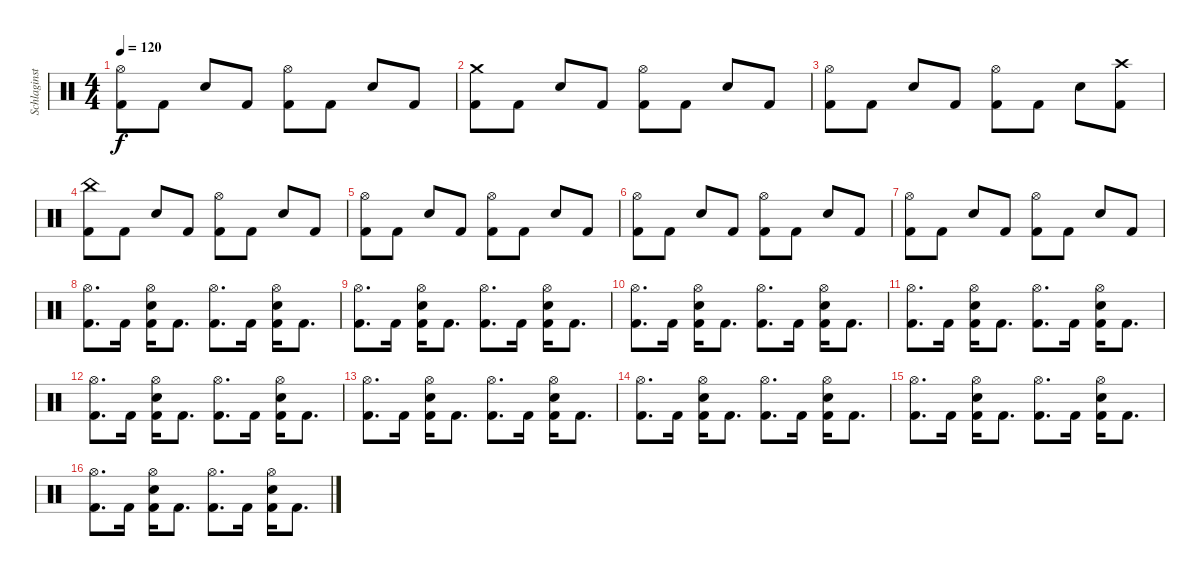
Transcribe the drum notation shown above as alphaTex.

\track ("Schlaginstrumente - Auswahl" "Schlaginst") {instrument percussion}
\staff {score}
\articulation defaults
\ts (4 4)
\tempo 120
\clef neutral
\ks c
("Hi-Hat (open)" "Kick (hit) 2").8{dy f} "Kick (hit) 2".8 "Electric Snare (hit)".8 "Kick (hit) 2".8 ("Hi-Hat (open)" "Kick (hit) 2").8 "Kick (hit) 2".8 "Electric Snare (hit)".8 "Kick (hit) 2".8 |
("Crash medium (hit)" "Kick (hit) 2").8 "Kick (hit) 2".8 "Electric Snare (hit)".8 "Kick (hit) 2".8 ("Hi-Hat (open)" "Kick (hit) 2").8 "Kick (hit) 2".8 "Electric Snare (hit)".8 "Kick (hit) 2".8 |
("Hi-Hat (open)" "Kick (hit) 2").8 "Kick (hit) 2".8 "Electric Snare (hit)".8 "Kick (hit) 2".8 ("Hi-Hat (open)" "Kick (hit) 2").8 "Kick (hit) 2".8 "Electric Snare (hit)".8 ("Crash high (hit)" "Kick (hit) 2").8 |
("China (hit)" "Kick (hit) 2").8 "Kick (hit) 2".8 "Electric Snare (hit)".8 "Kick (hit) 2".8 ("Hi-Hat (open)" "Kick (hit) 2").8 "Kick (hit) 2".8 "Electric Snare (hit)".8 "Kick (hit) 2".8 |
("Hi-Hat (open)" "Kick (hit) 2").8 "Kick (hit) 2".8 "Electric Snare (hit)".8 "Kick (hit) 2".8 ("Hi-Hat (open)" "Kick (hit) 2").8 "Kick (hit) 2".8 "Electric Snare (hit)".8 "Kick (hit) 2".8 |
("Hi-Hat (open)" "Kick (hit) 2").8 "Kick (hit) 2".8 "Electric Snare (hit)".8 "Kick (hit) 2".8 ("Hi-Hat (open)" "Kick (hit) 2").8 "Kick (hit) 2".8 "Electric Snare (hit)".8 "Kick (hit) 2".8 |
("Hi-Hat (open)" "Kick (hit) 2").8 "Kick (hit) 2".8 "Electric Snare (hit)".8 "Kick (hit) 2".8 ("Hi-Hat (open)" "Kick (hit) 2").8 "Kick (hit) 2".8 "Electric Snare (hit)".8 "Kick (hit) 2".8 |
("Hi-Hat (open)" "Kick (hit) 2").8{d} "Kick (hit) 2".16 ("Hi-Hat (open)" "Electric Snare (hit)" "Kick (hit) 2").16 "Kick (hit) 2".8{d} ("Hi-Hat (open)" "Kick (hit) 2").8{d} "Kick (hit) 2".16 ("Hi-Hat (open)" "Electric Snare (hit)" "Kick (hit) 2").16 "Kick (hit) 2".8{d} |
("Hi-Hat (open)" "Kick (hit) 2").8{d} "Kick (hit) 2".16 ("Hi-Hat (open)" "Electric Snare (hit)" "Kick (hit) 2").16 "Kick (hit) 2".8{d} ("Hi-Hat (open)" "Kick (hit) 2").8{d} "Kick (hit) 2".16 ("Hi-Hat (open)" "Electric Snare (hit)" "Kick (hit) 2").16 "Kick (hit) 2".8{d} |
("Hi-Hat (open)" "Kick (hit) 2").8{d} "Kick (hit) 2".16 ("Hi-Hat (open)" "Electric Snare (hit)" "Kick (hit) 2").16 "Kick (hit) 2".8{d} ("Hi-Hat (open)" "Kick (hit) 2").8{d} "Kick (hit) 2".16 ("Hi-Hat (open)" "Electric Snare (hit)" "Kick (hit) 2").16 "Kick (hit) 2".8{d} |
("Hi-Hat (open)" "Kick (hit) 2").8{d} "Kick (hit) 2".16 ("Hi-Hat (open)" "Electric Snare (hit)" "Kick (hit) 2").16 "Kick (hit) 2".8{d} ("Hi-Hat (open)" "Kick (hit) 2").8{d} "Kick (hit) 2".16 ("Hi-Hat (open)" "Electric Snare (hit)" "Kick (hit) 2").16 "Kick (hit) 2".8{d} |
("Hi-Hat (open)" "Kick (hit) 2").8{d} "Kick (hit) 2".16 ("Hi-Hat (open)" "Electric Snare (hit)" "Kick (hit) 2").16 "Kick (hit) 2".8{d} ("Hi-Hat (open)" "Kick (hit) 2").8{d} "Kick (hit) 2".16 ("Hi-Hat (open)" "Electric Snare (hit)" "Kick (hit) 2").16 "Kick (hit) 2".8{d} |
("Hi-Hat (open)" "Kick (hit) 2").8{d} "Kick (hit) 2".16 ("Hi-Hat (open)" "Electric Snare (hit)" "Kick (hit) 2").16 "Kick (hit) 2".8{d} ("Hi-Hat (open)" "Kick (hit) 2").8{d} "Kick (hit) 2".16 ("Hi-Hat (open)" "Electric Snare (hit)" "Kick (hit) 2").16 "Kick (hit) 2".8{d} |
("Hi-Hat (open)" "Kick (hit) 2").8{d} "Kick (hit) 2".16 ("Hi-Hat (open)" "Electric Snare (hit)" "Kick (hit) 2").16 "Kick (hit) 2".8{d} ("Hi-Hat (open)" "Kick (hit) 2").8{d} "Kick (hit) 2".16 ("Hi-Hat (open)" "Electric Snare (hit)" "Kick (hit) 2").16 "Kick (hit) 2".8{d} |
("Hi-Hat (open)" "Kick (hit) 2").8{d} "Kick (hit) 2".16 ("Hi-Hat (open)" "Electric Snare (hit)" "Kick (hit) 2").16 "Kick (hit) 2".8{d} ("Hi-Hat (open)" "Kick (hit) 2").8{d} "Kick (hit) 2".16 ("Hi-Hat (open)" "Electric Snare (hit)" "Kick (hit) 2").16 "Kick (hit) 2".8{d} |
("Hi-Hat (open)" "Kick (hit) 2").8{d} "Kick (hit) 2".16 ("Hi-Hat (open)" "Electric Snare (hit)" "Kick (hit) 2").16 "Kick (hit) 2".8{d} ("Hi-Hat (open)" "Kick (hit) 2").8{d} "Kick (hit) 2".16 ("Hi-Hat (open)" "Electric Snare (hit)" "Kick (hit) 2").16 "Kick (hit) 2".8{d}
